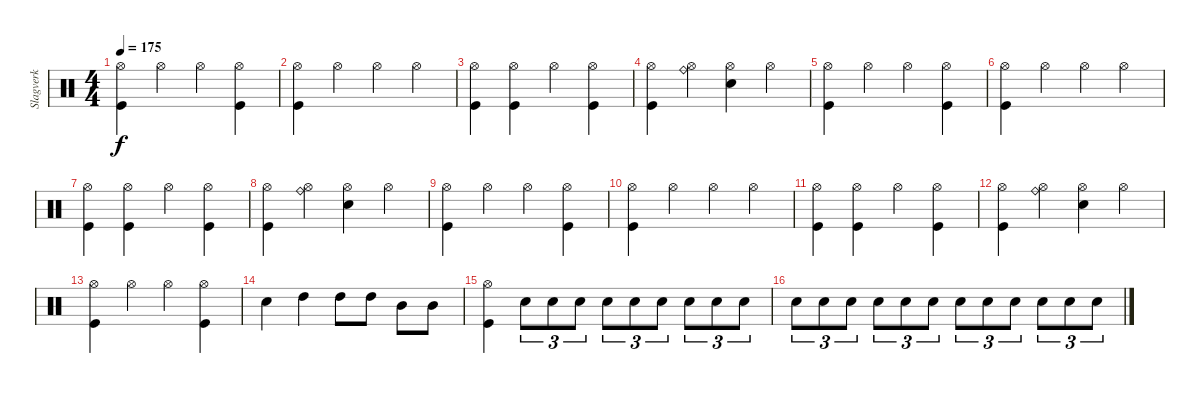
\track ("Slagverk" "Slagverk") {instrument percussion}
\staff {score}
\articulation defaults
\ts (4 4)
\tempo 175
\clef neutral
\ks c
("Hi-Hat (open)" "Kick (hit)").4{dy f} "Hi-Hat (open)".4 "Hi-Hat (open)".4 ("Hi-Hat (open)" "Kick (hit)").4 |
("Hi-Hat (open)" "Kick (hit)").4 "Hi-Hat (open)".4 "Hi-Hat (open)".4 "Hi-Hat (open)".4 |
("Hi-Hat (open)" "Kick (hit)").4 ("Hi-Hat (open)" "Kick (hit)").4 "Hi-Hat (open)".4 ("Hi-Hat (open)" "Kick (hit)").4 |
("Hi-Hat (open)" "Kick (hit)").4 ("Hi-Hat (open)" "Ride (bell)").4 ("Hi-Hat (open)" "Electric Snare (hit)").4 "Hi-Hat (open)".4 |
("Hi-Hat (open)" "Kick (hit)").4 "Hi-Hat (open)".4 "Hi-Hat (open)".4 ("Hi-Hat (open)" "Kick (hit)").4 |
("Hi-Hat (open)" "Kick (hit)").4 "Hi-Hat (open)".4 "Hi-Hat (open)".4 "Hi-Hat (open)".4 |
("Hi-Hat (open)" "Kick (hit)").4 ("Hi-Hat (open)" "Kick (hit)").4 "Hi-Hat (open)".4 ("Hi-Hat (open)" "Kick (hit)").4 |
("Hi-Hat (open)" "Kick (hit)").4 ("Hi-Hat (open)" "Ride (bell)").4 ("Hi-Hat (open)" "Electric Snare (hit)").4 "Hi-Hat (open)".4 |
("Hi-Hat (open)" "Kick (hit)").4 "Hi-Hat (open)".4 "Hi-Hat (open)".4 ("Hi-Hat (open)" "Kick (hit)").4 |
("Hi-Hat (open)" "Kick (hit)").4 "Hi-Hat (open)".4 "Hi-Hat (open)".4 "Hi-Hat (open)".4 |
("Hi-Hat (open)" "Kick (hit)").4 ("Hi-Hat (open)" "Kick (hit)").4 "Hi-Hat (open)".4 ("Hi-Hat (open)" "Kick (hit)").4 |
("Hi-Hat (open)" "Kick (hit)").4 ("Hi-Hat (open)" "Ride (bell)").4 ("Hi-Hat (open)" "Electric Snare (hit)").4 "Hi-Hat (open)".4 |
("Hi-Hat (open)" "Kick (hit)").4 "Hi-Hat (open)".4 "Hi-Hat (open)".4 ("Hi-Hat (open)" "Kick (hit)").4 |
"Electric Snare (hit)".4 "High Tom (hit)".4 "High Tom (hit)".8 "High Tom (hit)".8 "Mid Tom (hit)".8 "Mid Tom (hit)".8 |
("Hi-Hat (open)" "Kick (hit)").4{volume 9} "Electric Snare (hit)".8{tu (3 2) volume 14} "Electric Snare (hit)".8{tu (3 2)} "Electric Snare (hit)".8{tu (3 2)} "Electric Snare (hit)".8{tu (3 2)} "Electric Snare (hit)".8{tu (3 2)} "Electric Snare (hit)".8{tu (3 2)} "Electric Snare (hit)".8{tu (3 2)} "Electric Snare (hit)".8{tu (3 2)} "Electric Snare (hit)".8{tu (3 2)} |
"Electric Snare (hit)".8{tu (3 2)} "Electric Snare (hit)".8{tu (3 2)} "Electric Snare (hit)".8{tu (3 2)} "Electric Snare (hit)".8{tu (3 2)} "Electric Snare (hit)".8{tu (3 2)} "Electric Snare (hit)".8{tu (3 2)} "Electric Snare (hit)".8{tu (3 2)} "Electric Snare (hit)".8{tu (3 2)} "Electric Snare (hit)".8{tu (3 2)} "Electric Snare (hit)".8{tu (3 2)} "Electric Snare (hit)".8{tu (3 2)} "Electric Snare (hit)".8{tu (3 2)}
